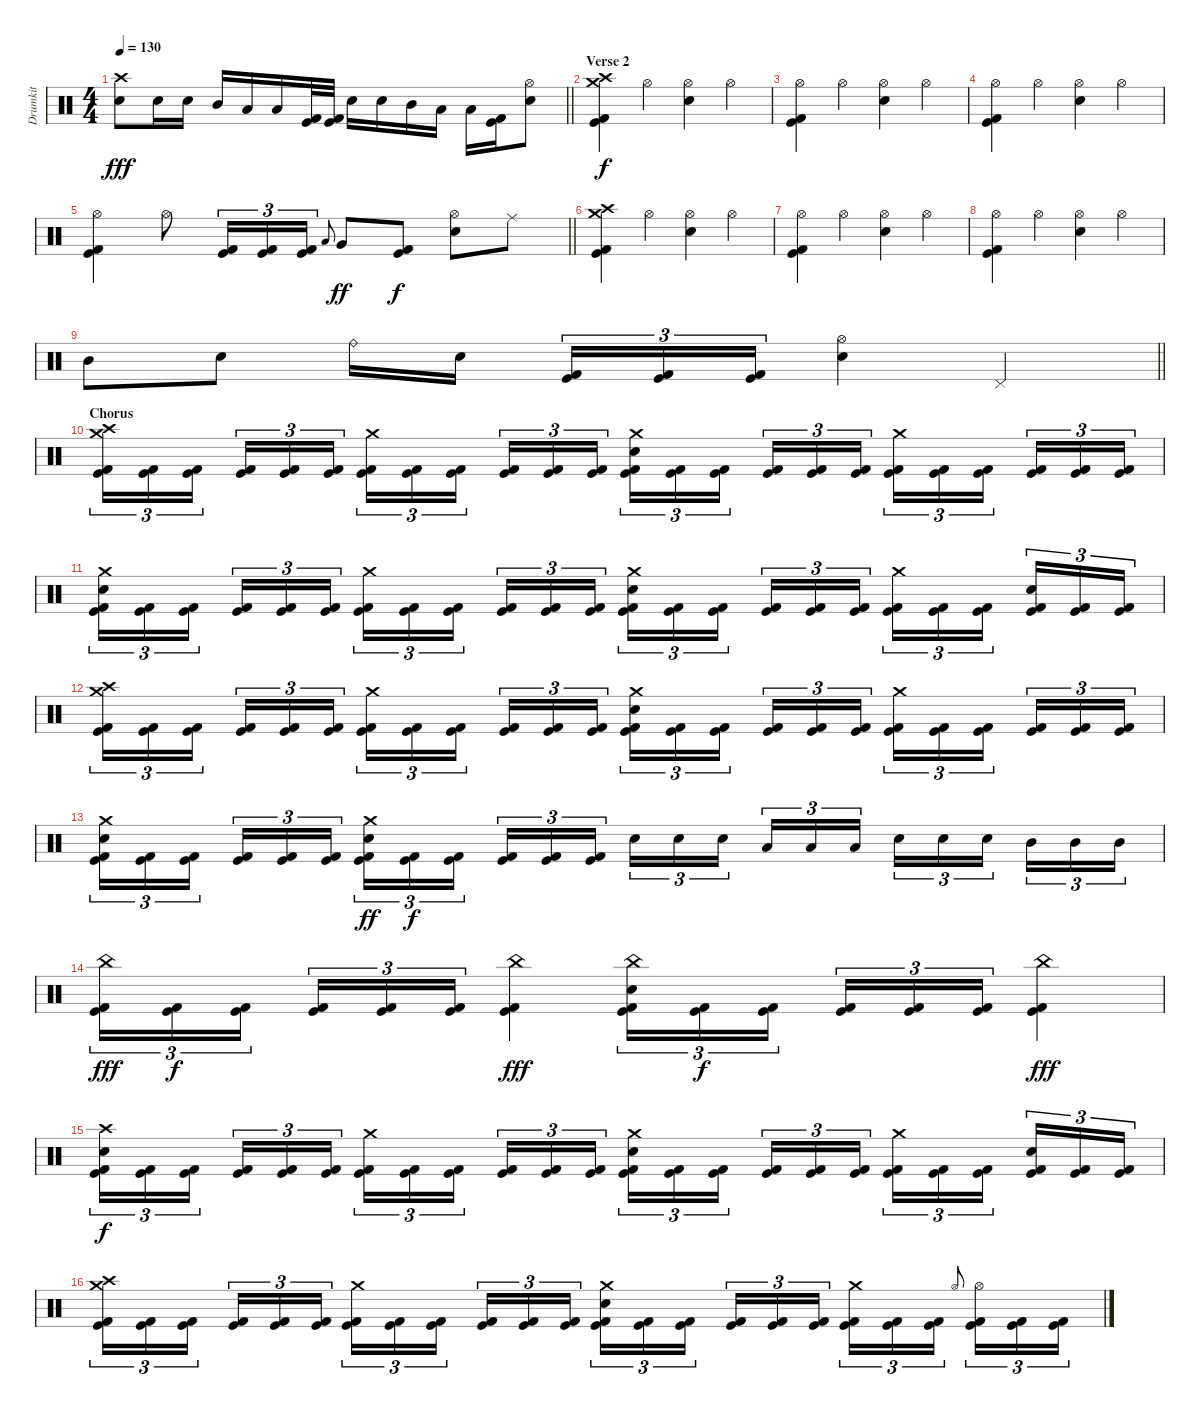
\track ("Drumkit" "Drumkit") {instrument percussion}
\staff {score}
\articulation defaults
\ts (4 4)
\tempo 130
\clef neutral
\barLineRight lightlight
\ks c
("Crash high (hit)" "Electric Snare (hit)").8{dy fff} "Electric Snare (hit)".16 "Electric Snare (hit)".16 "Mid Tom (hit)".16 "Low Tom (hit)".16 "Low Tom (hit)".16 ("Kick (hit)" "Kick (hit) 2").32 ("Kick (hit)" "Kick (hit) 2").32 "Electric Snare (hit)".16 "Electric Snare (hit)".16 "Mid Tom (hit)".16 "Low Tom (hit)".16 "Low Tom (hit)".16 ("Kick (hit)" "Kick (hit) 2").16 ("Hi-Hat (open)" "Electric Snare (hit)").8 |
\section ("" "Verse 2")
("Crash high (hit)" "Crash medium (hit)" "Kick (hit)" "Kick (hit) 2").4{dy f} "Hi-Hat (open)".4 ("Hi-Hat (open)" "Electric Snare (hit)").4 "Hi-Hat (open)".4 |
("Hi-Hat (open)" "Kick (hit)" "Kick (hit) 2").4 "Hi-Hat (open)".4 ("Hi-Hat (open)" "Electric Snare (hit)").4 "Hi-Hat (open)".4 |
("Hi-Hat (open)" "Kick (hit)" "Kick (hit) 2").4 "Hi-Hat (open)".4 ("Hi-Hat (open)" "Electric Snare (hit)").4 "Hi-Hat (open)".4 |
\barLineRight lightlight
("Hi-Hat (open)" "Kick (hit)" "Kick (hit) 2").4 "Hi-Hat (open)".8 ("Kick (hit)" "Kick (hit) 2").16{tu (3 2)} ("Kick (hit)" "Kick (hit) 2").16{tu (3 2)} ("Kick (hit)" "Kick (hit) 2").16{tu (3 2)} "Low Tom (hit)".8{gr onbeat} "Very Low Tom (hit)".8{dy ff} ("Kick (hit)" "Kick (hit) 2").8{dy f} ("Hi-Hat (open)" "Electric Snare (hit)").8 "Ride (middle)".8 |
("Crash high (hit)" "Crash medium (hit)" "Kick (hit)" "Kick (hit) 2").4 "Hi-Hat (open)".4 ("Hi-Hat (open)" "Electric Snare (hit)").4 "Hi-Hat (open)".4 |
("Hi-Hat (open)" "Kick (hit)" "Kick (hit) 2").4 "Hi-Hat (open)".4 ("Hi-Hat (open)" "Electric Snare (hit)").4 "Hi-Hat (open)".4 |
("Hi-Hat (open)" "Kick (hit)" "Kick (hit) 2").4 "Hi-Hat (open)".4 ("Hi-Hat (open)" "Electric Snare (hit)").4 "Hi-Hat (open)".4 |
\barLineRight lightlight "Mid Tom (hit)".8 "Electric Snare (hit)".8 "Ride (bell)".16 "Electric Snare (hit)".16{beam splitsecondary}
("Kick (hit)" "Kick (hit) 2").16{tu (3 2)} ("Kick (hit)" "Kick (hit) 2").16{tu (3 2)} ("Kick (hit)" "Kick (hit) 2").16{tu (3 2)} ("Hi-Hat (open)" "Electric Snare (hit)").4 "Pedal Hi-Hat (hit)".4 |
\section ("" "Chorus")
("Crash high (hit)" "Crash medium (hit)" "Kick (hit)" "Kick (hit) 2").16{tu (3 2)} ("Kick (hit)" "Kick (hit) 2").16{tu (3 2)} ("Kick (hit)" "Kick (hit) 2").16{tu (3 2) beam splitsecondary} ("Kick (hit)" "Kick (hit) 2").16{tu (3 2)} ("Kick (hit)" "Kick (hit) 2").16{tu (3 2)} ("Kick (hit)" "Kick (hit) 2").16{tu (3 2)} ("Crash medium (hit)" "Kick (hit)" "Kick (hit) 2").16{tu (3 2)} ("Kick (hit)" "Kick (hit) 2").16{tu (3 2)} ("Kick (hit)" "Kick (hit) 2").16{tu (3 2) beam splitsecondary} ("Kick (hit)" "Kick (hit) 2").16{tu (3 2)} ("Kick (hit)" "Kick (hit) 2").16{tu (3 2)} ("Kick (hit)" "Kick (hit) 2").16{tu (3 2)} ("Crash medium (hit)" "Electric Snare (hit)" "Kick (hit)" "Kick (hit) 2").16{tu (3 2)} ("Kick (hit)" "Kick (hit) 2").16{tu (3 2)} ("Kick (hit)" "Kick (hit) 2").16{tu (3 2) beam splitsecondary} ("Kick (hit)" "Kick (hit) 2").16{tu (3 2)} ("Kick (hit)" "Kick (hit) 2").16{tu (3 2)} ("Kick (hit)" "Kick (hit) 2").16{tu (3 2)} ("Crash medium (hit)" "Kick (hit)" "Kick (hit) 2").16{tu (3 2)} ("Kick (hit)" "Kick (hit) 2").16{tu (3 2)} ("Kick (hit)" "Kick (hit) 2").16{tu (3 2) beam splitsecondary} ("Kick (hit)" "Kick (hit) 2").16{tu (3 2)} ("Kick (hit)" "Kick (hit) 2").16{tu (3 2)} ("Kick (hit)" "Kick (hit) 2").16{tu (3 2)} |
("Crash medium (hit)" "Electric Snare (hit)" "Kick (hit)" "Kick (hit) 2").16{tu (3 2)} ("Kick (hit)" "Kick (hit) 2").16{tu (3 2)} ("Kick (hit)" "Kick (hit) 2").16{tu (3 2) beam splitsecondary} ("Kick (hit)" "Kick (hit) 2").16{tu (3 2)} ("Kick (hit)" "Kick (hit) 2").16{tu (3 2)} ("Kick (hit)" "Kick (hit) 2").16{tu (3 2)} ("Crash medium (hit)" "Kick (hit)" "Kick (hit) 2").16{tu (3 2)} ("Kick (hit)" "Kick (hit) 2").16{tu (3 2)} ("Kick (hit)" "Kick (hit) 2").16{tu (3 2) beam splitsecondary} ("Kick (hit)" "Kick (hit) 2").16{tu (3 2)} ("Kick (hit)" "Kick (hit) 2").16{tu (3 2)} ("Kick (hit)" "Kick (hit) 2").16{tu (3 2)} ("Crash medium (hit)" "Electric Snare (hit)" "Kick (hit)" "Kick (hit) 2").16{tu (3 2)} ("Kick (hit)" "Kick (hit) 2").16{tu (3 2)} ("Kick (hit)" "Kick (hit) 2").16{tu (3 2) beam splitsecondary} ("Kick (hit)" "Kick (hit) 2").16{tu (3 2)} ("Kick (hit)" "Kick (hit) 2").16{tu (3 2)} ("Kick (hit)" "Kick (hit) 2").16{tu (3 2)} ("Crash medium (hit)" "Kick (hit)" "Kick (hit) 2").16{tu (3 2)} ("Kick (hit)" "Kick (hit) 2").16{tu (3 2)} ("Kick (hit)" "Kick (hit) 2").16{tu (3 2) beam splitsecondary} ("Electric Snare (hit)" "Kick (hit)" "Kick (hit) 2").16{tu (3 2)} ("Kick (hit)" "Kick (hit) 2").16{tu (3 2)} ("Kick (hit)" "Kick (hit) 2").16{tu (3 2)} |
("Crash high (hit)" "Crash medium (hit)" "Kick (hit)" "Kick (hit) 2").16{tu (3 2)} ("Kick (hit)" "Kick (hit) 2").16{tu (3 2)} ("Kick (hit)" "Kick (hit) 2").16{tu (3 2) beam splitsecondary} ("Kick (hit)" "Kick (hit) 2").16{tu (3 2)} ("Kick (hit)" "Kick (hit) 2").16{tu (3 2)} ("Kick (hit)" "Kick (hit) 2").16{tu (3 2)} ("Crash medium (hit)" "Kick (hit)" "Kick (hit) 2").16{tu (3 2)} ("Kick (hit)" "Kick (hit) 2").16{tu (3 2)} ("Kick (hit)" "Kick (hit) 2").16{tu (3 2) beam splitsecondary} ("Kick (hit)" "Kick (hit) 2").16{tu (3 2)} ("Kick (hit)" "Kick (hit) 2").16{tu (3 2)} ("Kick (hit)" "Kick (hit) 2").16{tu (3 2)} ("Crash medium (hit)" "Electric Snare (hit)" "Kick (hit)" "Kick (hit) 2").16{tu (3 2)} ("Kick (hit)" "Kick (hit) 2").16{tu (3 2)} ("Kick (hit)" "Kick (hit) 2").16{tu (3 2) beam splitsecondary} ("Kick (hit)" "Kick (hit) 2").16{tu (3 2)} ("Kick (hit)" "Kick (hit) 2").16{tu (3 2)} ("Kick (hit)" "Kick (hit) 2").16{tu (3 2)} ("Crash medium (hit)" "Kick (hit)" "Kick (hit) 2").16{tu (3 2)} ("Kick (hit)" "Kick (hit) 2").16{tu (3 2)} ("Kick (hit)" "Kick (hit) 2").16{tu (3 2) beam splitsecondary} ("Kick (hit)" "Kick (hit) 2").16{tu (3 2)} ("Kick (hit)" "Kick (hit) 2").16{tu (3 2)} ("Kick (hit)" "Kick (hit) 2").16{tu (3 2)} |
("Crash medium (hit)" "Electric Snare (hit)" "Kick (hit)" "Kick (hit) 2").16{tu (3 2)} ("Kick (hit)" "Kick (hit) 2").16{tu (3 2)} ("Kick (hit)" "Kick (hit) 2").16{tu (3 2) beam splitsecondary} ("Kick (hit)" "Kick (hit) 2").16{tu (3 2)} ("Kick (hit)" "Kick (hit) 2").16{tu (3 2)} ("Kick (hit)" "Kick (hit) 2").16{tu (3 2)} ("Crash medium (hit)" "Electric Snare (hit)" "Kick (hit)" "Kick (hit) 2").16{tu (3 2) dy ff} ("Kick (hit)" "Kick (hit) 2").16{tu (3 2) dy f} ("Kick (hit)" "Kick (hit) 2").16{tu (3 2) beam splitsecondary} ("Kick (hit)" "Kick (hit) 2").16{tu (3 2)} ("Kick (hit)" "Kick (hit) 2").16{tu (3 2)} ("Kick (hit)" "Kick (hit) 2").16{tu (3 2)} "Electric Snare (hit)".16{tu (3 2)} "Electric Snare (hit)".16{tu (3 2)} "Electric Snare (hit)".16{tu (3 2) beam splitsecondary} "Low Tom (hit)".16{tu (3 2)} "Low Tom (hit)".16{tu (3 2)} "Low Tom (hit)".16{tu (3 2)} "Electric Snare (hit)".16{tu (3 2)} "Electric Snare (hit)".16{tu (3 2)} "Electric Snare (hit)".16{tu (3 2) beam splitsecondary} "Mid Tom (hit)".16{tu (3 2)} "Mid Tom (hit)".16{tu (3 2)} "Mid Tom (hit)".16{tu (3 2)} |
("China (hit)" "Kick (hit)" "Kick (hit) 2").16{tu (3 2) dy fff} ("Kick (hit)" "Kick (hit) 2").16{tu (3 2) dy f} ("Kick (hit)" "Kick (hit) 2").16{tu (3 2) beam splitsecondary} ("Kick (hit)" "Kick (hit) 2").16{tu (3 2)} ("Kick (hit)" "Kick (hit) 2").16{tu (3 2)} ("Kick (hit)" "Kick (hit) 2").16{tu (3 2)} ("China (hit)" "Kick (hit)" "Kick (hit) 2").4{dy fff} ("China (hit)" "Electric Snare (hit)" "Kick (hit)" "Kick (hit) 2").16{tu (3 2)} ("Kick (hit)" "Kick (hit) 2").16{tu (3 2) dy f} ("Kick (hit)" "Kick (hit) 2").16{tu (3 2) beam splitsecondary} ("Kick (hit)" "Kick (hit) 2").16{tu (3 2)} ("Kick (hit)" "Kick (hit) 2").16{tu (3 2)} ("Kick (hit)" "Kick (hit) 2").16{tu (3 2)} ("China (hit)" "Kick (hit)" "Kick (hit) 2").4{dy fff} |
("Crash high (hit)" "Electric Snare (hit)" "Kick (hit)" "Kick (hit) 2").16{tu (3 2) dy f} ("Kick (hit)" "Kick (hit) 2").16{tu (3 2)} ("Kick (hit)" "Kick (hit) 2").16{tu (3 2) beam splitsecondary} ("Kick (hit)" "Kick (hit) 2").16{tu (3 2)} ("Kick (hit)" "Kick (hit) 2").16{tu (3 2)} ("Kick (hit)" "Kick (hit) 2").16{tu (3 2)} ("Crash medium (hit)" "Kick (hit)" "Kick (hit) 2").16{tu (3 2)} ("Kick (hit)" "Kick (hit) 2").16{tu (3 2)} ("Kick (hit)" "Kick (hit) 2").16{tu (3 2) beam splitsecondary} ("Kick (hit)" "Kick (hit) 2").16{tu (3 2)} ("Kick (hit)" "Kick (hit) 2").16{tu (3 2)} ("Kick (hit)" "Kick (hit) 2").16{tu (3 2)} ("Crash medium (hit)" "Electric Snare (hit)" "Kick (hit)" "Kick (hit) 2").16{tu (3 2)} ("Kick (hit)" "Kick (hit) 2").16{tu (3 2)} ("Kick (hit)" "Kick (hit) 2").16{tu (3 2) beam splitsecondary} ("Kick (hit)" "Kick (hit) 2").16{tu (3 2)} ("Kick (hit)" "Kick (hit) 2").16{tu (3 2)} ("Kick (hit)" "Kick (hit) 2").16{tu (3 2)} ("Crash medium (hit)" "Kick (hit)" "Kick (hit) 2").16{tu (3 2)} ("Kick (hit)" "Kick (hit) 2").16{tu (3 2)} ("Kick (hit)" "Kick (hit) 2").16{tu (3 2) beam splitsecondary} ("Electric Snare (hit)" "Kick (hit)" "Kick (hit) 2").16{tu (3 2)} ("Kick (hit)" "Kick (hit) 2").16{tu (3 2)} ("Kick (hit)" "Kick (hit) 2").16{tu (3 2)} |
("Crash high (hit)" "Crash medium (hit)" "Kick (hit)" "Kick (hit) 2").16{tu (3 2)} ("Kick (hit)" "Kick (hit) 2").16{tu (3 2)} ("Kick (hit)" "Kick (hit) 2").16{tu (3 2) beam splitsecondary} ("Kick (hit)" "Kick (hit) 2").16{tu (3 2)} ("Kick (hit)" "Kick (hit) 2").16{tu (3 2)} ("Kick (hit)" "Kick (hit) 2").16{tu (3 2)} ("Crash medium (hit)" "Kick (hit)" "Kick (hit) 2").16{tu (3 2)} ("Kick (hit)" "Kick (hit) 2").16{tu (3 2)} ("Kick (hit)" "Kick (hit) 2").16{tu (3 2) beam splitsecondary} ("Kick (hit)" "Kick (hit) 2").16{tu (3 2)} ("Kick (hit)" "Kick (hit) 2").16{tu (3 2)} ("Kick (hit)" "Kick (hit) 2").16{tu (3 2)} ("Crash medium (hit)" "Electric Snare (hit)" "Kick (hit)" "Kick (hit) 2").16{tu (3 2)} ("Kick (hit)" "Kick (hit) 2").16{tu (3 2)} ("Kick (hit)" "Kick (hit) 2").16{tu (3 2) beam splitsecondary} ("Kick (hit)" "Kick (hit) 2").16{tu (3 2)} ("Kick (hit)" "Kick (hit) 2").16{tu (3 2)} ("Kick (hit)" "Kick (hit) 2").16{tu (3 2)} ("Crash medium (hit)" "Kick (hit)" "Kick (hit) 2").16{tu (3 2)} ("Kick (hit)" "Kick (hit) 2").16{tu (3 2)} ("Kick (hit)" "Kick (hit) 2").16{tu (3 2)} "Hi-Hat (open)".8{gr onbeat beam splitsecondary} ("Hi-Hat (open)" "Kick (hit)" "Kick (hit) 2").16{tu (3 2)} ("Kick (hit)" "Kick (hit) 2").16{tu (3 2)} ("Kick (hit)" "Kick (hit) 2").16{tu (3 2)}
